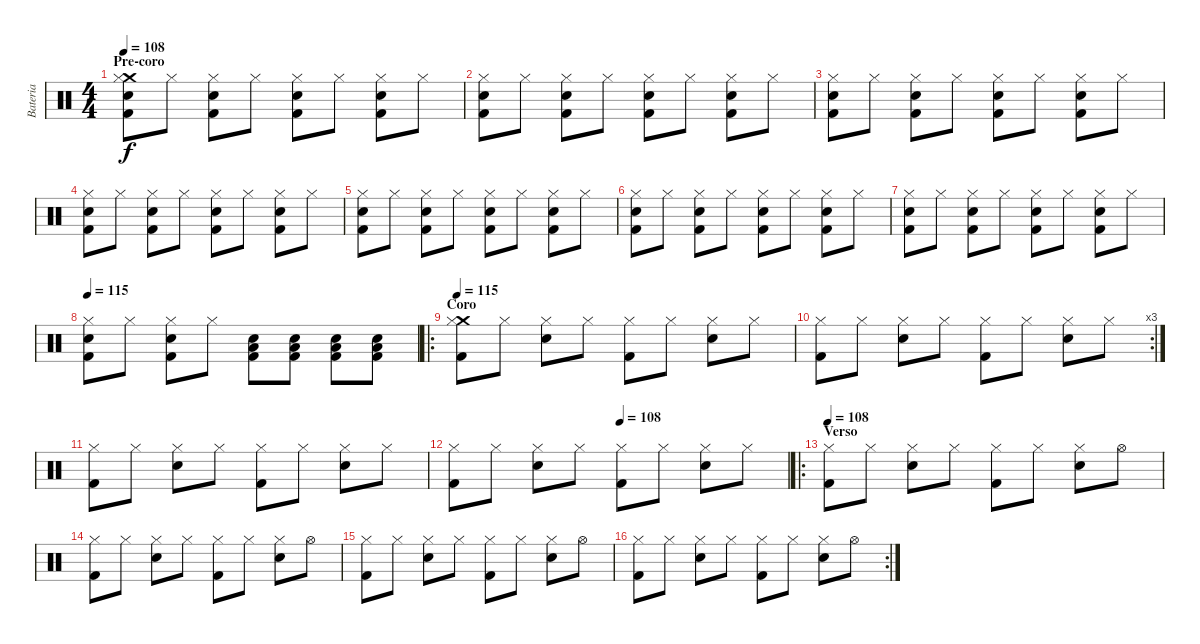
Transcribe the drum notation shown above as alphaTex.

\track ("Bateria" "Bateria") {instrument percussion}
\staff {score}
\articulation defaults
\ts (4 4)
\section ("" "Pre-coro")
\tempo 108
\clef neutral
\ks c
("Crash medium (hit)" "Hi-Hat (closed)" "Electric Snare (hit)" "Kick (hit) 2").8{dy f} "Hi-Hat (closed)".8 ("Hi-Hat (closed)" "Electric Snare (hit)" "Kick (hit) 2").8 "Hi-Hat (closed)".8 ("Hi-Hat (closed)" "Electric Snare (hit)" "Kick (hit) 2").8 "Hi-Hat (closed)".8 ("Hi-Hat (closed)" "Electric Snare (hit)" "Kick (hit) 2").8 "Hi-Hat (closed)".8 |
("Hi-Hat (closed)" "Electric Snare (hit)" "Kick (hit) 2").8 "Hi-Hat (closed)".8 ("Hi-Hat (closed)" "Electric Snare (hit)" "Kick (hit) 2").8 "Hi-Hat (closed)".8 ("Hi-Hat (closed)" "Electric Snare (hit)" "Kick (hit) 2").8 "Hi-Hat (closed)".8 ("Hi-Hat (closed)" "Electric Snare (hit)" "Kick (hit) 2").8 "Hi-Hat (closed)".8 |
("Hi-Hat (closed)" "Electric Snare (hit)" "Kick (hit) 2").8 "Hi-Hat (closed)".8 ("Hi-Hat (closed)" "Electric Snare (hit)" "Kick (hit) 2").8 "Hi-Hat (closed)".8 ("Hi-Hat (closed)" "Electric Snare (hit)" "Kick (hit) 2").8 "Hi-Hat (closed)".8 ("Hi-Hat (closed)" "Electric Snare (hit)" "Kick (hit) 2").8 "Hi-Hat (closed)".8 |
("Hi-Hat (closed)" "Electric Snare (hit)" "Kick (hit) 2").8 "Hi-Hat (closed)".8 ("Hi-Hat (closed)" "Electric Snare (hit)" "Kick (hit) 2").8 "Hi-Hat (closed)".8 ("Hi-Hat (closed)" "Electric Snare (hit)" "Kick (hit) 2").8 "Hi-Hat (closed)".8 ("Hi-Hat (closed)" "Electric Snare (hit)" "Kick (hit) 2").8 "Hi-Hat (closed)".8 |
("Hi-Hat (closed)" "Electric Snare (hit)" "Kick (hit) 2").8 "Hi-Hat (closed)".8 ("Hi-Hat (closed)" "Electric Snare (hit)" "Kick (hit) 2").8 "Hi-Hat (closed)".8 ("Hi-Hat (closed)" "Electric Snare (hit)" "Kick (hit) 2").8 "Hi-Hat (closed)".8 ("Hi-Hat (closed)" "Electric Snare (hit)" "Kick (hit) 2").8 "Hi-Hat (closed)".8 |
("Hi-Hat (closed)" "Electric Snare (hit)" "Kick (hit) 2").8 "Hi-Hat (closed)".8 ("Hi-Hat (closed)" "Electric Snare (hit)" "Kick (hit) 2").8 "Hi-Hat (closed)".8 ("Hi-Hat (closed)" "Electric Snare (hit)" "Kick (hit) 2").8 "Hi-Hat (closed)".8 ("Hi-Hat (closed)" "Electric Snare (hit)" "Kick (hit) 2").8 "Hi-Hat (closed)".8 |
("Hi-Hat (closed)" "Electric Snare (hit)" "Kick (hit) 2").8 "Hi-Hat (closed)".8 ("Hi-Hat (closed)" "Electric Snare (hit)" "Kick (hit) 2").8 "Hi-Hat (closed)".8 ("Hi-Hat (closed)" "Electric Snare (hit)" "Kick (hit) 2").8 "Hi-Hat (closed)".8 ("Hi-Hat (closed)" "Electric Snare (hit)" "Kick (hit) 2").8 "Hi-Hat (closed)".8 |
\tempo 115
("Hi-Hat (closed)" "Electric Snare (hit)" "Kick (hit) 2").8 "Hi-Hat (closed)".8 ("Hi-Hat (closed)" "Electric Snare (hit)" "Kick (hit) 2").8 "Hi-Hat (closed)".8 ("Low Tom (hit)" "Electric Snare (hit)" "Kick (hit) 2").8 ("Low Tom (hit)" "Electric Snare (hit)" "Kick (hit) 2").8 ("Low Tom (hit)" "Electric Snare (hit)" "Kick (hit) 2").8 ("Low Tom (hit)" "Electric Snare (hit)" "Kick (hit) 2").8 |
\ro
\section ("" "Coro")
\tempo 115
("Crash medium (hit)" "Hi-Hat (closed)" "Kick (hit) 2").8 "Hi-Hat (closed)".8 ("Hi-Hat (closed)" "Electric Snare (hit)").8 "Hi-Hat (closed)".8 ("Hi-Hat (closed)" "Kick (hit) 2").8 "Hi-Hat (closed)".8 ("Hi-Hat (closed)" "Electric Snare (hit)").8 "Hi-Hat (closed)".8 |
\rc 3
("Hi-Hat (closed)" "Kick (hit) 2").8 "Hi-Hat (closed)".8 ("Hi-Hat (closed)" "Electric Snare (hit)").8 "Hi-Hat (closed)".8 ("Hi-Hat (closed)" "Kick (hit) 2").8 "Hi-Hat (closed)".8 ("Hi-Hat (closed)" "Electric Snare (hit)").8 "Hi-Hat (closed)".8 |
("Hi-Hat (closed)" "Kick (hit) 2").8 "Hi-Hat (closed)".8 ("Hi-Hat (closed)" "Electric Snare (hit)").8 "Hi-Hat (closed)".8 ("Hi-Hat (closed)" "Kick (hit) 2").8 "Hi-Hat (closed)".8 ("Hi-Hat (closed)" "Electric Snare (hit)").8 "Hi-Hat (closed)".8 |
\tempo (108 0.5)
("Hi-Hat (closed)" "Kick (hit) 2").8 "Hi-Hat (closed)".8 ("Hi-Hat (closed)" "Electric Snare (hit)").8 "Hi-Hat (closed)".8 ("Hi-Hat (closed)" "Kick (hit) 2").8 "Hi-Hat (closed)".8 ("Hi-Hat (closed)" "Electric Snare (hit)").8 "Hi-Hat (closed)".8 |
\ro
\section ("" "Verso")
\tempo 108
("Hi-Hat (closed)" "Kick (hit) 2").8 "Hi-Hat (closed)".8 ("Hi-Hat (closed)" "Electric Snare (hit)").8 "Hi-Hat (closed)".8 ("Hi-Hat (closed)" "Kick (hit) 2").8 "Hi-Hat (closed)".8 ("Hi-Hat (closed)" "Electric Snare (hit)").8 "Hi-Hat (open)".8 |
("Hi-Hat (closed)" "Kick (hit) 2").8 "Hi-Hat (closed)".8 ("Hi-Hat (closed)" "Electric Snare (hit)").8 "Hi-Hat (closed)".8 ("Hi-Hat (closed)" "Kick (hit) 2").8 "Hi-Hat (closed)".8 ("Hi-Hat (closed)" "Electric Snare (hit)").8 "Hi-Hat (open)".8 |
("Hi-Hat (closed)" "Kick (hit) 2").8 "Hi-Hat (closed)".8 ("Hi-Hat (closed)" "Electric Snare (hit)").8 "Hi-Hat (closed)".8 ("Hi-Hat (closed)" "Kick (hit) 2").8 "Hi-Hat (closed)".8 ("Hi-Hat (closed)" "Electric Snare (hit)").8 "Hi-Hat (open)".8 |
\rc 2
("Hi-Hat (closed)" "Kick (hit) 2").8 "Hi-Hat (closed)".8 ("Hi-Hat (closed)" "Electric Snare (hit)").8 "Hi-Hat (closed)".8 ("Hi-Hat (closed)" "Kick (hit) 2").8 "Hi-Hat (closed)".8 ("Hi-Hat (closed)" "Electric Snare (hit)").8 "Hi-Hat (open)".8
